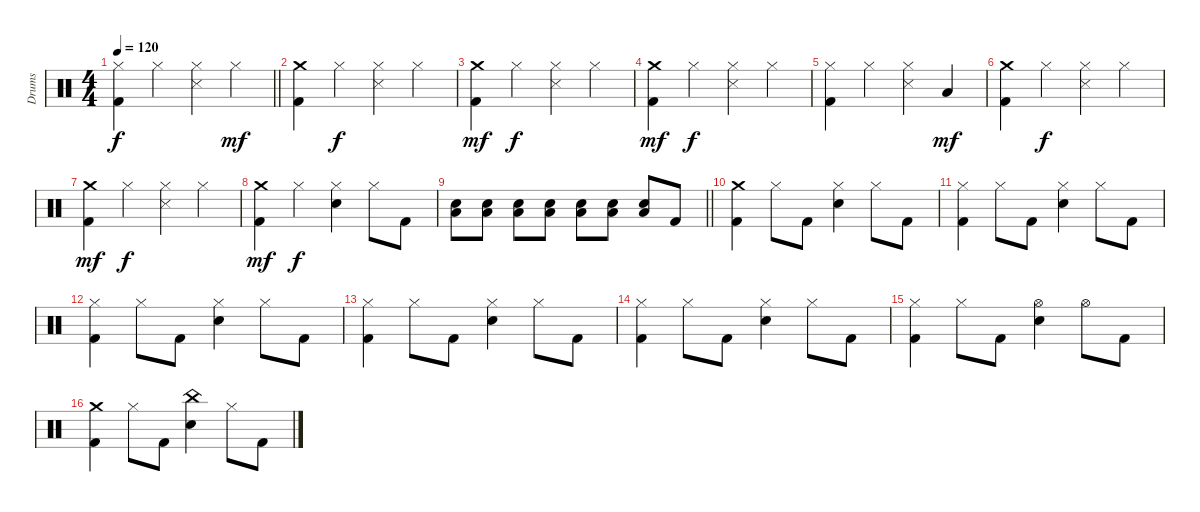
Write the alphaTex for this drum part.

\track ("Drums" "Drums") {instrument percussion}
\staff {score}
\articulation defaults
\ts (4 4)
\tempo 120
\clef neutral
\barLineRight lightlight
\ks c
("Hi-Hat (closed)" "Kick (hit) 2").4{dy f} "Hi-Hat (closed)".4 ("Hi-Hat (closed)" "Snare (side stick) 3").4 "Hi-Hat (closed)".4{dy mf} |
("Crash medium (hit)" "Kick (hit) 2").4 "Hi-Hat (closed)".4{dy f} ("Hi-Hat (closed)" "Snare (side stick) 3").4 "Hi-Hat (closed)".4 |
("Crash medium (hit)" "Kick (hit) 2").4{dy mf} "Hi-Hat (closed)".4{dy f} ("Hi-Hat (closed)" "Snare (side stick) 3").4 "Hi-Hat (closed)".4 |
("Crash medium (hit)" "Kick (hit) 2").4{dy mf} "Hi-Hat (closed)".4{dy f} ("Hi-Hat (closed)" "Snare (side stick) 3").4 "Hi-Hat (closed)".4 |
("Hi-Hat (closed)" "Kick (hit) 2").4 "Hi-Hat (closed)".4 ("Hi-Hat (closed)" "Snare (side stick) 3").4 "Low Tom (hit)".4{dy mf} |
("Crash medium (hit)" "Kick (hit) 2").4 "Hi-Hat (closed)".4{dy f} ("Hi-Hat (closed)" "Snare (side stick) 3").4 "Hi-Hat (closed)".4 |
("Crash medium (hit)" "Kick (hit) 2").4{dy mf} "Hi-Hat (closed)".4{dy f} ("Hi-Hat (closed)" "Snare (side stick) 3").4 "Hi-Hat (closed)".4 |
("Crash medium (hit)" "Kick (hit) 2").4{dy mf} "Hi-Hat (closed)".4{dy f} ("Hi-Hat (closed)" "Electric Snare (hit)").4 "Hi-Hat (closed)".8 "Kick (hit) 2".8 |
\barLineRight lightlight
("Low Tom (hit)" "Electric Snare (hit)").8 ("Low Tom (hit)" "Electric Snare (hit)").8 ("Low Tom (hit)" "Electric Snare (hit)").8 ("Low Tom (hit)" "Electric Snare (hit)").8 ("Low Tom (hit)" "Electric Snare (hit)").8 ("Low Tom (hit)" "Electric Snare (hit)").8 ("Low Tom (hit)" "Electric Snare (hit)").8 "Kick (hit) 2".8 |
("Crash medium (hit)" "Kick (hit) 2").4 "Hi-Hat (closed)".8 "Kick (hit) 2".8 ("Hi-Hat (closed)" "Electric Snare (hit)").4 "Hi-Hat (closed)".8 "Kick (hit) 2".8 |
("Hi-Hat (closed)" "Kick (hit) 2").4 "Hi-Hat (closed)".8 "Kick (hit) 2".8 ("Hi-Hat (closed)" "Electric Snare (hit)").4 "Hi-Hat (closed)".8 "Kick (hit) 2".8 |
("Hi-Hat (closed)" "Kick (hit) 2").4 "Hi-Hat (closed)".8 "Kick (hit) 2".8 ("Hi-Hat (closed)" "Electric Snare (hit)").4 "Hi-Hat (closed)".8 "Kick (hit) 2".8 |
("Hi-Hat (closed)" "Kick (hit) 2").4 "Hi-Hat (closed)".8 "Kick (hit) 2".8 ("Hi-Hat (closed)" "Electric Snare (hit)").4 "Hi-Hat (closed)".8 "Kick (hit) 2".8 |
("Hi-Hat (closed)" "Kick (hit) 2").4 "Hi-Hat (closed)".8 "Kick (hit) 2".8 ("Hi-Hat (closed)" "Electric Snare (hit)").4 "Hi-Hat (closed)".8 "Kick (hit) 2".8 |
("Hi-Hat (closed)" "Kick (hit) 2").4 "Hi-Hat (closed)".8 "Kick (hit) 2".8 ("Hi-Hat (open)" "Electric Snare (hit)").4 "Hi-Hat (open)".8 "Kick (hit) 2".8 |
("Crash medium (hit)" "Kick (hit) 2").4 "Hi-Hat (closed)".8 "Kick (hit) 2".8 ("China (hit)" "Electric Snare (hit)").4 "Hi-Hat (closed)".8 "Kick (hit) 2".8
